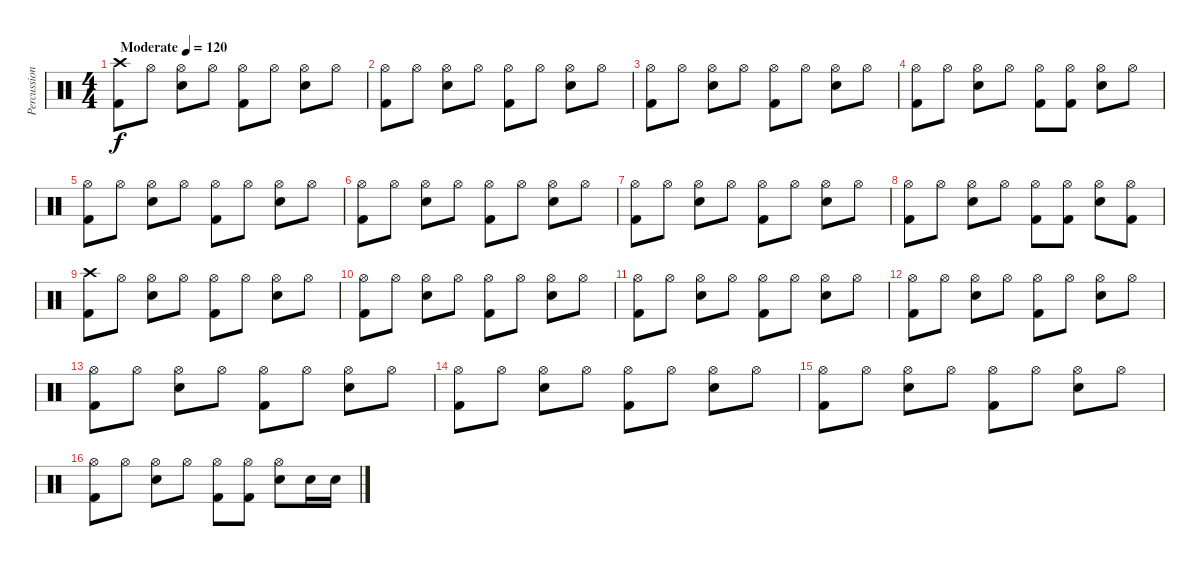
\track ("Percussion" "Percussion") {instrument percussion}
\staff {score}
\articulation defaults
\ts (4 4)
\tempo (120 "Moderate")
\clef neutral
\ks c
("Crash high (hit)" "Kick (hit) 2").8{dy f} "Hi-Hat (open)".8 ("Hi-Hat (open)" "Electric Snare (hit)").8 "Hi-Hat (open)".8 ("Hi-Hat (open)" "Kick (hit) 2").8 "Hi-Hat (open)".8 ("Hi-Hat (open)" "Electric Snare (hit)").8 "Hi-Hat (open)".8 |
("Hi-Hat (open)" "Kick (hit) 2").8 "Hi-Hat (open)".8 ("Hi-Hat (open)" "Electric Snare (hit)").8 "Hi-Hat (open)".8 ("Hi-Hat (open)" "Kick (hit) 2").8 "Hi-Hat (open)".8 ("Hi-Hat (open)" "Electric Snare (hit)").8 "Hi-Hat (open)".8 |
("Hi-Hat (open)" "Kick (hit) 2").8 "Hi-Hat (open)".8 ("Hi-Hat (open)" "Electric Snare (hit)").8 "Hi-Hat (open)".8 ("Hi-Hat (open)" "Kick (hit) 2").8 "Hi-Hat (open)".8 ("Hi-Hat (open)" "Electric Snare (hit)").8 "Hi-Hat (open)".8 |
("Hi-Hat (open)" "Kick (hit) 2").8 "Hi-Hat (open)".8 ("Hi-Hat (open)" "Electric Snare (hit)").8 "Hi-Hat (open)".8 ("Hi-Hat (open)" "Kick (hit) 2").8 ("Hi-Hat (open)" "Kick (hit) 2").8 ("Hi-Hat (open)" "Electric Snare (hit)").8 "Hi-Hat (open)".8 |
("Hi-Hat (open)" "Kick (hit) 2").8 "Hi-Hat (open)".8 ("Hi-Hat (open)" "Electric Snare (hit)").8 "Hi-Hat (open)".8 ("Hi-Hat (open)" "Kick (hit) 2").8 "Hi-Hat (open)".8 ("Hi-Hat (open)" "Electric Snare (hit)").8 "Hi-Hat (open)".8 |
("Hi-Hat (open)" "Kick (hit) 2").8 "Hi-Hat (open)".8 ("Hi-Hat (open)" "Electric Snare (hit)").8 "Hi-Hat (open)".8 ("Hi-Hat (open)" "Kick (hit) 2").8 "Hi-Hat (open)".8 ("Hi-Hat (open)" "Electric Snare (hit)").8 "Hi-Hat (open)".8 |
("Hi-Hat (open)" "Kick (hit) 2").8 "Hi-Hat (open)".8 ("Hi-Hat (open)" "Electric Snare (hit)").8 "Hi-Hat (open)".8 ("Hi-Hat (open)" "Kick (hit) 2").8 "Hi-Hat (open)".8 ("Hi-Hat (open)" "Electric Snare (hit)").8 "Hi-Hat (open)".8 |
("Hi-Hat (open)" "Kick (hit) 2").8 "Hi-Hat (open)".8 ("Hi-Hat (open)" "Electric Snare (hit)").8 "Hi-Hat (open)".8 ("Hi-Hat (open)" "Kick (hit) 2").8 ("Hi-Hat (open)" "Kick (hit) 2").8 ("Hi-Hat (open)" "Electric Snare (hit)").8 ("Hi-Hat (open)" "Kick (hit) 2").8 |
("Crash high (hit)" "Kick (hit) 2").8 "Hi-Hat (open)".8 ("Hi-Hat (open)" "Electric Snare (hit)").8 "Hi-Hat (open)".8 ("Hi-Hat (open)" "Kick (hit) 2").8 "Hi-Hat (open)".8 ("Hi-Hat (open)" "Electric Snare (hit)").8 "Hi-Hat (open)".8 |
("Hi-Hat (open)" "Kick (hit) 2").8 "Hi-Hat (open)".8 ("Hi-Hat (open)" "Electric Snare (hit)").8 "Hi-Hat (open)".8 ("Hi-Hat (open)" "Kick (hit) 2").8 "Hi-Hat (open)".8 ("Hi-Hat (open)" "Electric Snare (hit)").8 "Hi-Hat (open)".8 |
("Hi-Hat (open)" "Kick (hit) 2").8 "Hi-Hat (open)".8 ("Hi-Hat (open)" "Electric Snare (hit)").8 "Hi-Hat (open)".8 ("Hi-Hat (open)" "Kick (hit) 2").8 "Hi-Hat (open)".8 ("Hi-Hat (open)" "Electric Snare (hit)").8 "Hi-Hat (open)".8 |
("Hi-Hat (open)" "Kick (hit) 2").8 "Hi-Hat (open)".8 ("Hi-Hat (open)" "Electric Snare (hit)").8 "Hi-Hat (open)".8 ("Hi-Hat (open)" "Kick (hit) 2").8 "Hi-Hat (open)".8 ("Hi-Hat (open)" "Electric Snare (hit)").8 "Hi-Hat (open)".8 |
("Hi-Hat (open)" "Kick (hit) 2").8 "Hi-Hat (open)".8 ("Hi-Hat (open)" "Electric Snare (hit)").8 "Hi-Hat (open)".8 ("Hi-Hat (open)" "Kick (hit) 2").8 "Hi-Hat (open)".8 ("Hi-Hat (open)" "Electric Snare (hit)").8 "Hi-Hat (open)".8 |
("Hi-Hat (open)" "Kick (hit) 2").8 "Hi-Hat (open)".8 ("Hi-Hat (open)" "Electric Snare (hit)").8 "Hi-Hat (open)".8 ("Hi-Hat (open)" "Kick (hit) 2").8 "Hi-Hat (open)".8 ("Hi-Hat (open)" "Electric Snare (hit)").8 "Hi-Hat (open)".8 |
("Hi-Hat (open)" "Kick (hit) 2").8 "Hi-Hat (open)".8 ("Hi-Hat (open)" "Electric Snare (hit)").8 "Hi-Hat (open)".8 ("Hi-Hat (open)" "Kick (hit) 2").8 "Hi-Hat (open)".8 ("Hi-Hat (open)" "Electric Snare (hit)").8 "Hi-Hat (open)".8 |
("Hi-Hat (open)" "Kick (hit) 2").8 "Hi-Hat (open)".8 ("Hi-Hat (open)" "Electric Snare (hit)").8 "Hi-Hat (open)".8 ("Hi-Hat (open)" "Kick (hit) 2").8 ("Hi-Hat (open)" "Kick (hit) 2").8 ("Hi-Hat (open)" "Electric Snare (hit)").8 "Electric Snare (hit)".16 "Electric Snare (hit)".16
